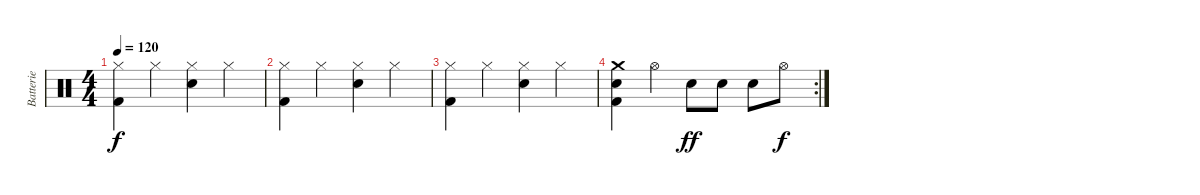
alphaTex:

\track ("Batterie" "Batterie") {instrument percussion}
\staff {score}
\articulation defaults
\ts (4 4)
\tempo 120
\clef neutral
\ks c
("Hi-Hat (closed)" "Kick (hit) 2").4{dy f} "Hi-Hat (closed)".4 ("Hi-Hat (closed)" "Snare (hit) 2").4 "Hi-Hat (closed)".4 |
("Hi-Hat (closed)" "Kick (hit) 2").4 "Hi-Hat (closed)".4 ("Hi-Hat (closed)" "Snare (hit) 2").4 "Hi-Hat (closed)".4 |
("Hi-Hat (closed)" "Kick (hit) 2").4 "Hi-Hat (closed)".4 ("Hi-Hat (closed)" "Snare (hit) 2").4 "Hi-Hat (closed)".4 |
\rc 2
("Crash medium (hit)" "Snare (hit) 2" "Kick (hit) 2").4 "Hi-Hat (open)".4 "Snare (hit) 2".8{dy ff} "Snare (hit) 2".8 "Snare (hit) 2".8 "Hi-Hat (open)".8{dy f}
